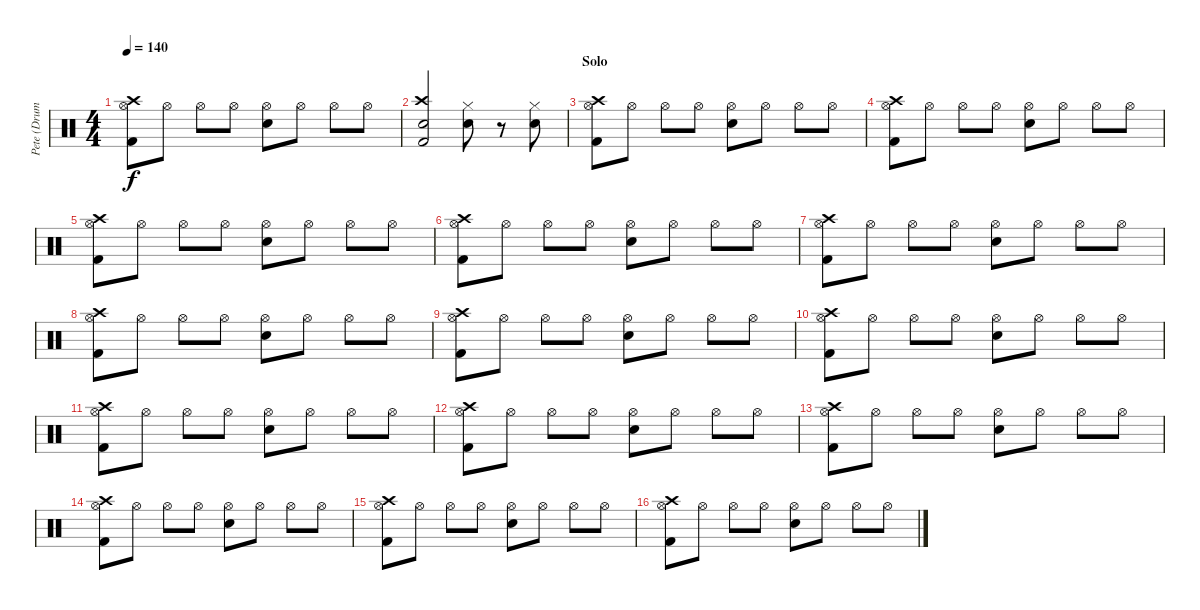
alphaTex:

\track ("Pete (Drums)" "Pete (Drum") {instrument percussion}
\staff {score}
\articulation defaults
\ts (4 4)
\tempo 140
\clef neutral
\ks c
("Hi-Hat (open)" "Kick (hit) 2" "Crash high (hit)").8{dy f} "Hi-Hat (open)".8 "Hi-Hat (open)".8 "Hi-Hat (open)".8 ("Hi-Hat (open)" "Snare (hit) 2").8 "Hi-Hat (open)".8 "Hi-Hat (open)".8 "Hi-Hat (open)".8 |
("Snare (hit) 2" "Kick (hit) 2" "Crash high (hit)").2 ("Snare (hit) 2" "Hi-Hat (closed)").8 r.8 ("Snare (hit) 2" "Hi-Hat (closed)").8 |
\section ("" "Solo")
("Hi-Hat (open)" "Kick (hit) 2" "Crash high (hit)").8 "Hi-Hat (open)".8 "Hi-Hat (open)".8 "Hi-Hat (open)".8 ("Hi-Hat (open)" "Snare (hit) 2").8 "Hi-Hat (open)".8 "Hi-Hat (open)".8 "Hi-Hat (open)".8 |
("Hi-Hat (open)" "Kick (hit) 2" "Crash high (hit)").8 "Hi-Hat (open)".8 "Hi-Hat (open)".8 "Hi-Hat (open)".8 ("Hi-Hat (open)" "Snare (hit) 2").8 "Hi-Hat (open)".8 "Hi-Hat (open)".8 "Hi-Hat (open)".8 |
("Hi-Hat (open)" "Kick (hit) 2" "Crash high (hit)").8 "Hi-Hat (open)".8 "Hi-Hat (open)".8 "Hi-Hat (open)".8 ("Hi-Hat (open)" "Snare (hit) 2").8 "Hi-Hat (open)".8 "Hi-Hat (open)".8 "Hi-Hat (open)".8 |
("Hi-Hat (open)" "Kick (hit) 2" "Crash high (hit)").8 "Hi-Hat (open)".8 "Hi-Hat (open)".8 "Hi-Hat (open)".8 ("Hi-Hat (open)" "Snare (hit) 2").8 "Hi-Hat (open)".8 "Hi-Hat (open)".8 "Hi-Hat (open)".8 |
("Hi-Hat (open)" "Kick (hit) 2" "Crash high (hit)").8 "Hi-Hat (open)".8 "Hi-Hat (open)".8 "Hi-Hat (open)".8 ("Hi-Hat (open)" "Snare (hit) 2").8 "Hi-Hat (open)".8 "Hi-Hat (open)".8 "Hi-Hat (open)".8 |
("Hi-Hat (open)" "Kick (hit) 2" "Crash high (hit)").8 "Hi-Hat (open)".8 "Hi-Hat (open)".8 "Hi-Hat (open)".8 ("Hi-Hat (open)" "Snare (hit) 2").8 "Hi-Hat (open)".8 "Hi-Hat (open)".8 "Hi-Hat (open)".8 |
("Hi-Hat (open)" "Kick (hit) 2" "Crash high (hit)").8 "Hi-Hat (open)".8 "Hi-Hat (open)".8 "Hi-Hat (open)".8 ("Hi-Hat (open)" "Snare (hit) 2").8 "Hi-Hat (open)".8 "Hi-Hat (open)".8 "Hi-Hat (open)".8 |
("Hi-Hat (open)" "Kick (hit) 2" "Crash high (hit)").8 "Hi-Hat (open)".8 "Hi-Hat (open)".8 "Hi-Hat (open)".8 ("Hi-Hat (open)" "Snare (hit) 2").8 "Hi-Hat (open)".8 "Hi-Hat (open)".8 "Hi-Hat (open)".8 |
("Hi-Hat (open)" "Kick (hit) 2" "Crash high (hit)").8 "Hi-Hat (open)".8 "Hi-Hat (open)".8 "Hi-Hat (open)".8 ("Hi-Hat (open)" "Snare (hit) 2").8 "Hi-Hat (open)".8 "Hi-Hat (open)".8 "Hi-Hat (open)".8 |
("Hi-Hat (open)" "Kick (hit) 2" "Crash high (hit)").8 "Hi-Hat (open)".8 "Hi-Hat (open)".8 "Hi-Hat (open)".8 ("Hi-Hat (open)" "Snare (hit) 2").8 "Hi-Hat (open)".8 "Hi-Hat (open)".8 "Hi-Hat (open)".8 |
("Hi-Hat (open)" "Kick (hit) 2" "Crash high (hit)").8 "Hi-Hat (open)".8 "Hi-Hat (open)".8 "Hi-Hat (open)".8 ("Hi-Hat (open)" "Snare (hit) 2").8 "Hi-Hat (open)".8 "Hi-Hat (open)".8 "Hi-Hat (open)".8 |
("Hi-Hat (open)" "Kick (hit) 2" "Crash high (hit)").8 "Hi-Hat (open)".8 "Hi-Hat (open)".8 "Hi-Hat (open)".8 ("Hi-Hat (open)" "Snare (hit) 2").8 "Hi-Hat (open)".8 "Hi-Hat (open)".8 "Hi-Hat (open)".8 |
("Hi-Hat (open)" "Kick (hit) 2" "Crash high (hit)").8 "Hi-Hat (open)".8 "Hi-Hat (open)".8 "Hi-Hat (open)".8 ("Hi-Hat (open)" "Snare (hit) 2").8 "Hi-Hat (open)".8 "Hi-Hat (open)".8 "Hi-Hat (open)".8 |
("Hi-Hat (open)" "Kick (hit) 2" "Crash high (hit)").8 "Hi-Hat (open)".8 "Hi-Hat (open)".8 "Hi-Hat (open)".8 ("Hi-Hat (open)" "Snare (hit) 2").8 "Hi-Hat (open)".8 "Hi-Hat (open)".8 "Hi-Hat (open)".8
